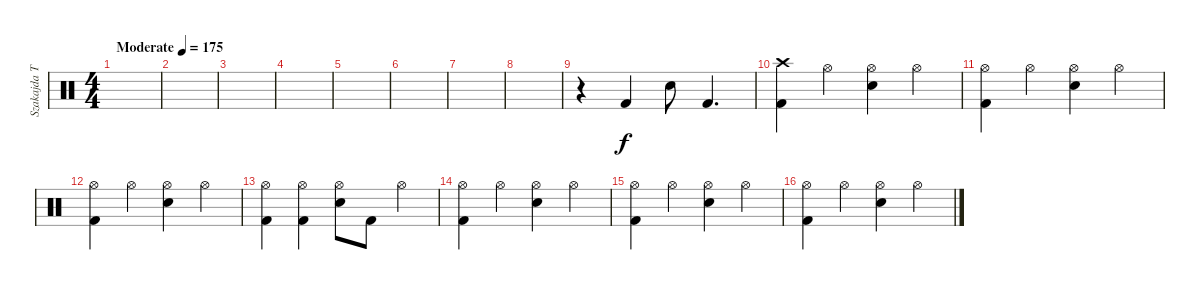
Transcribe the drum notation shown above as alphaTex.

\track ("Szakajda Tibi" "Szakajda T") {instrument percussion}
\staff {score}
\articulation defaults
\ts (4 4)
\tempo (175 "Moderate")
\clef neutral
\ks c
|
|
|
|
|
|
|
|
r.4 "Kick (hit) 2".4 "Snare (hit) 2".8 "Kick (hit) 2".4{d} |
("Crash high (hit)" "Kick (hit) 2").4 "Hi-Hat (open)".4 ("Hi-Hat (open)" "Snare (hit) 2").4 "Hi-Hat (open)".4 |
("Hi-Hat (open)" "Kick (hit) 2").4 "Hi-Hat (open)".4 ("Hi-Hat (open)" "Snare (hit) 2").4 "Hi-Hat (open)".4 |
("Hi-Hat (open)" "Kick (hit) 2").4 "Hi-Hat (open)".4 ("Hi-Hat (open)" "Snare (hit) 2").4 "Hi-Hat (open)".4 |
("Hi-Hat (open)" "Kick (hit) 2").4 ("Hi-Hat (open)" "Kick (hit) 2").4 ("Hi-Hat (open)" "Snare (hit) 2").8 "Kick (hit) 2".8 "Hi-Hat (open)".4 |
("Hi-Hat (open)" "Kick (hit) 2").4 "Hi-Hat (open)".4 ("Hi-Hat (open)" "Snare (hit) 2").4 "Hi-Hat (open)".4 |
("Hi-Hat (open)" "Kick (hit) 2").4 "Hi-Hat (open)".4 ("Hi-Hat (open)" "Snare (hit) 2").4 "Hi-Hat (open)".4 |
("Hi-Hat (open)" "Kick (hit) 2").4 "Hi-Hat (open)".4 ("Hi-Hat (open)" "Snare (hit) 2").4 "Hi-Hat (open)".4
